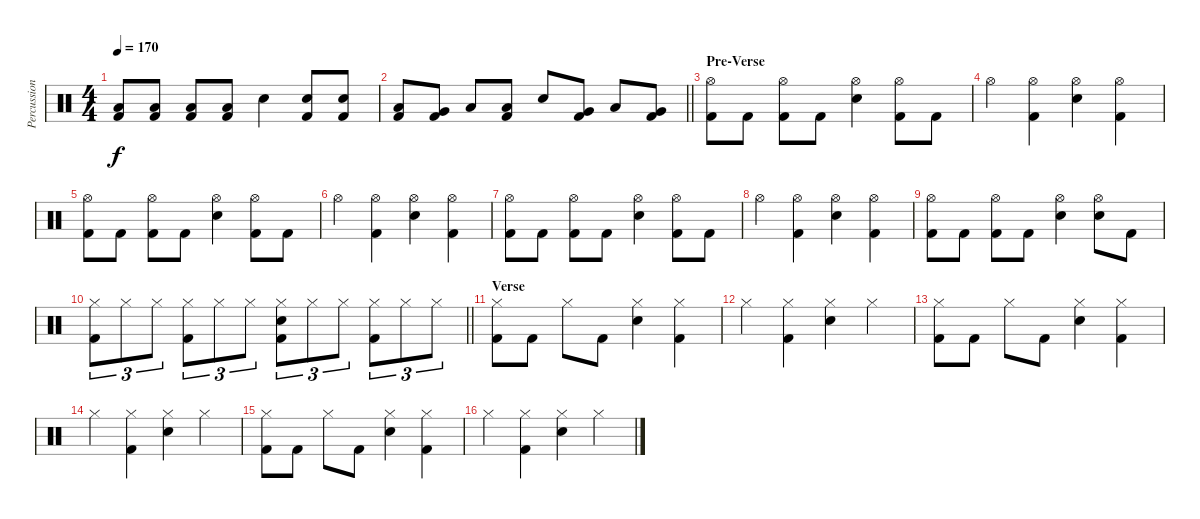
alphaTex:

\track ("Percussion" "Percussion") {instrument percussion}
\staff {score}
\articulation defaults
\ts (4 4)
\tempo 170
\clef neutral
\ks c
("Low Floor Tom (hit)" "Kick (hit) 2").8{dy f} ("Low Floor Tom (hit)" "Kick (hit) 2").8 ("Low Floor Tom (hit)" "Kick (hit) 2").8 ("Low Floor Tom (hit)" "Kick (hit) 2").8 "Electric Snare (hit)".4 ("Electric Snare (hit)" "Kick (hit) 2").8 ("Electric Snare (hit)" "Kick (hit) 2").8 |
\barLineRight lightlight
("Low Tom (hit)" "Kick (hit) 2").8 ("Very Low Tom (hit)" "Kick (hit) 2").8 "Low Floor Tom (hit)".8 ("Low Floor Tom (hit)" "Kick (hit) 2").8 "Electric Snare (hit)".8 ("Very Low Tom (hit)" "Kick (hit) 2").8 "Low Floor Tom (hit)".8 ("Very Low Tom (hit)" "Kick (hit) 2").8 |
\section ("" "Pre-Verse")
("Hi-Hat (open)" "Kick (hit) 2").8 "Kick (hit) 2".8 ("Hi-Hat (open)" "Kick (hit) 2").8 "Kick (hit) 2".8 ("Hi-Hat (open)" "Electric Snare (hit)").4 ("Hi-Hat (open)" "Kick (hit) 2").8 "Kick (hit) 2".8 |
"Hi-Hat (open)".4 ("Hi-Hat (open)" "Kick (hit) 2").4 ("Hi-Hat (open)" "Electric Snare (hit)").4 ("Hi-Hat (open)" "Kick (hit) 2").4 |
("Hi-Hat (open)" "Kick (hit) 2").8 "Kick (hit) 2".8 ("Hi-Hat (open)" "Kick (hit) 2").8 "Kick (hit) 2".8 ("Hi-Hat (open)" "Electric Snare (hit)").4 ("Hi-Hat (open)" "Kick (hit) 2").8 "Kick (hit) 2".8 |
"Hi-Hat (open)".4 ("Hi-Hat (open)" "Kick (hit) 2").4 ("Hi-Hat (open)" "Electric Snare (hit)").4 ("Hi-Hat (open)" "Kick (hit) 2").4 |
("Hi-Hat (open)" "Kick (hit) 2").8 "Kick (hit) 2".8 ("Hi-Hat (open)" "Kick (hit) 2").8 "Kick (hit) 2".8 ("Hi-Hat (open)" "Electric Snare (hit)").4 ("Hi-Hat (open)" "Kick (hit) 2").8 "Kick (hit) 2".8 |
"Hi-Hat (open)".4 ("Hi-Hat (open)" "Kick (hit) 2").4 ("Hi-Hat (open)" "Electric Snare (hit)").4 ("Hi-Hat (open)" "Kick (hit) 2").4 |
("Hi-Hat (open)" "Kick (hit) 2").8 "Kick (hit) 2".8 ("Hi-Hat (open)" "Kick (hit) 2").8 "Kick (hit) 2".8 ("Hi-Hat (open)" "Electric Snare (hit)").4 ("Hi-Hat (open)" "Electric Snare (hit)").8 "Kick (hit) 2".8 |
\barLineRight lightlight
("Hi-Hat (closed)" "Kick (hit) 2").8{tu (3 2)} "Hi-Hat (closed)".8{tu (3 2)} "Hi-Hat (closed)".8{tu (3 2)} ("Hi-Hat (closed)" "Kick (hit) 2").8{tu (3 2)} "Hi-Hat (closed)".8{tu (3 2)} "Hi-Hat (closed)".8{tu (3 2)} ("Hi-Hat (closed)" "Electric Snare (hit)" "Kick (hit) 2").8{tu (3 2)} "Hi-Hat (closed)".8{tu (3 2)} "Hi-Hat (closed)".8{tu (3 2)} ("Hi-Hat (closed)" "Kick (hit) 2").8{tu (3 2)} "Hi-Hat (closed)".8{tu (3 2)} "Hi-Hat (closed)".8{tu (3 2)} |
\section ("" "Verse")
("Hi-Hat (closed)" "Kick (hit) 2").8 "Kick (hit) 2".8 "Hi-Hat (closed)".8 "Kick (hit) 2".8 ("Hi-Hat (closed)" "Electric Snare (hit)").4 ("Hi-Hat (closed)" "Kick (hit) 2").4 |
"Hi-Hat (closed)".4 ("Hi-Hat (closed)" "Kick (hit) 2").4 ("Hi-Hat (closed)" "Electric Snare (hit)").4 "Hi-Hat (closed)".4 |
("Hi-Hat (closed)" "Kick (hit) 2").8 "Kick (hit) 2".8 "Hi-Hat (closed)".8 "Kick (hit) 2".8 ("Hi-Hat (closed)" "Electric Snare (hit)").4 ("Hi-Hat (closed)" "Kick (hit) 2").4 |
"Hi-Hat (closed)".4 ("Hi-Hat (closed)" "Kick (hit) 2").4 ("Hi-Hat (closed)" "Electric Snare (hit)").4 "Hi-Hat (closed)".4 |
("Hi-Hat (closed)" "Kick (hit) 2").8 "Kick (hit) 2".8 "Hi-Hat (closed)".8 "Kick (hit) 2".8 ("Hi-Hat (closed)" "Electric Snare (hit)").4 ("Hi-Hat (closed)" "Kick (hit) 2").4 |
"Hi-Hat (closed)".4 ("Hi-Hat (closed)" "Kick (hit) 2").4 ("Hi-Hat (closed)" "Electric Snare (hit)").4 "Hi-Hat (closed)".4
